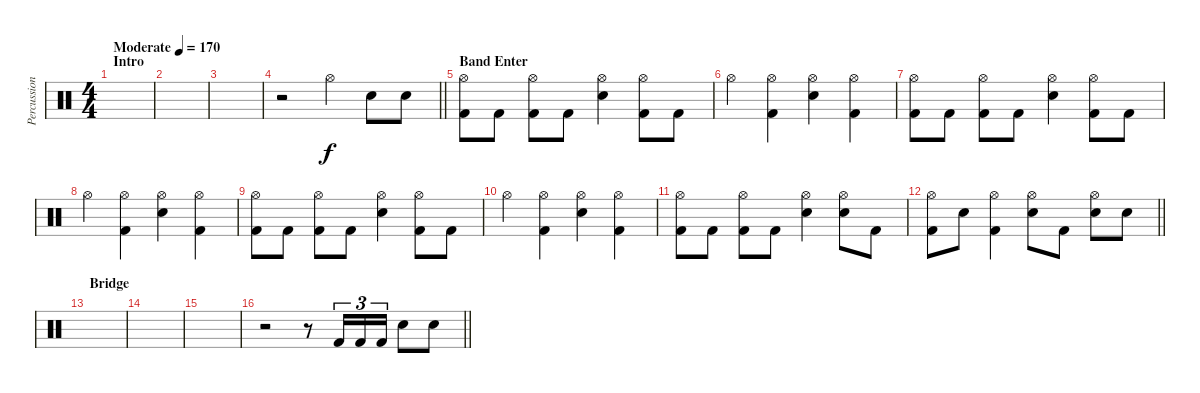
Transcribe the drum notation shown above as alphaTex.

\track ("Percussion" "Percussion") {instrument percussion}
\staff {score}
\articulation defaults
\ts (4 4)
\section ("" "Intro")
\tempo (170 "Moderate")
\clef neutral
\ks c
|
|
|
\barLineRight lightlight
r.2 "Hi-Hat (open)".4 "Electric Snare (hit)".8 "Electric Snare (hit)".8 |
\section ("" "Band Enter")
("Hi-Hat (open)" "Kick (hit) 2").8 "Kick (hit) 2".8 ("Hi-Hat (open)" "Kick (hit) 2").8 "Kick (hit) 2".8 ("Hi-Hat (open)" "Electric Snare (hit)").4 ("Hi-Hat (open)" "Kick (hit) 2").8 "Kick (hit) 2".8 |
"Hi-Hat (open)".4 ("Hi-Hat (open)" "Kick (hit) 2").4 ("Hi-Hat (open)" "Electric Snare (hit)").4 ("Hi-Hat (open)" "Kick (hit) 2").4 |
("Hi-Hat (open)" "Kick (hit) 2").8 "Kick (hit) 2".8 ("Hi-Hat (open)" "Kick (hit) 2").8 "Kick (hit) 2".8 ("Hi-Hat (open)" "Electric Snare (hit)").4 ("Hi-Hat (open)" "Kick (hit) 2").8 "Kick (hit) 2".8 |
"Hi-Hat (open)".4 ("Hi-Hat (open)" "Kick (hit) 2").4 ("Hi-Hat (open)" "Electric Snare (hit)").4 ("Hi-Hat (open)" "Kick (hit) 2").4 |
("Hi-Hat (open)" "Kick (hit) 2").8 "Kick (hit) 2".8 ("Hi-Hat (open)" "Kick (hit) 2").8 "Kick (hit) 2".8 ("Hi-Hat (open)" "Electric Snare (hit)").4 ("Hi-Hat (open)" "Kick (hit) 2").8 "Kick (hit) 2".8 |
"Hi-Hat (open)".4 ("Hi-Hat (open)" "Kick (hit) 2").4 ("Hi-Hat (open)" "Electric Snare (hit)").4 ("Hi-Hat (open)" "Kick (hit) 2").4 |
("Hi-Hat (open)" "Kick (hit) 2").8 "Kick (hit) 2".8 ("Hi-Hat (open)" "Kick (hit) 2").8 "Kick (hit) 2".8 ("Hi-Hat (open)" "Electric Snare (hit)").4 ("Hi-Hat (open)" "Electric Snare (hit)").8 "Kick (hit) 2".8 |
\barLineRight lightlight
("Hi-Hat (open)" "Kick (hit) 2").8 "Electric Snare (hit)".8 ("Hi-Hat (open)" "Kick (hit) 2").4 ("Hi-Hat (open)" "Electric Snare (hit)").8 "Kick (hit) 2".8 ("Hi-Hat (open)" "Electric Snare (hit)").8 "Electric Snare (hit)".8 |
\section ("" "Bridge")
|
|
|
\barLineRight lightlight
r.2 r.8 "Kick (hit) 2".16{tu (3 2)} "Kick (hit) 2".16{tu (3 2)} "Kick (hit) 2".16{tu (3 2)} "Electric Snare (hit)".8 "Electric Snare (hit)".8
